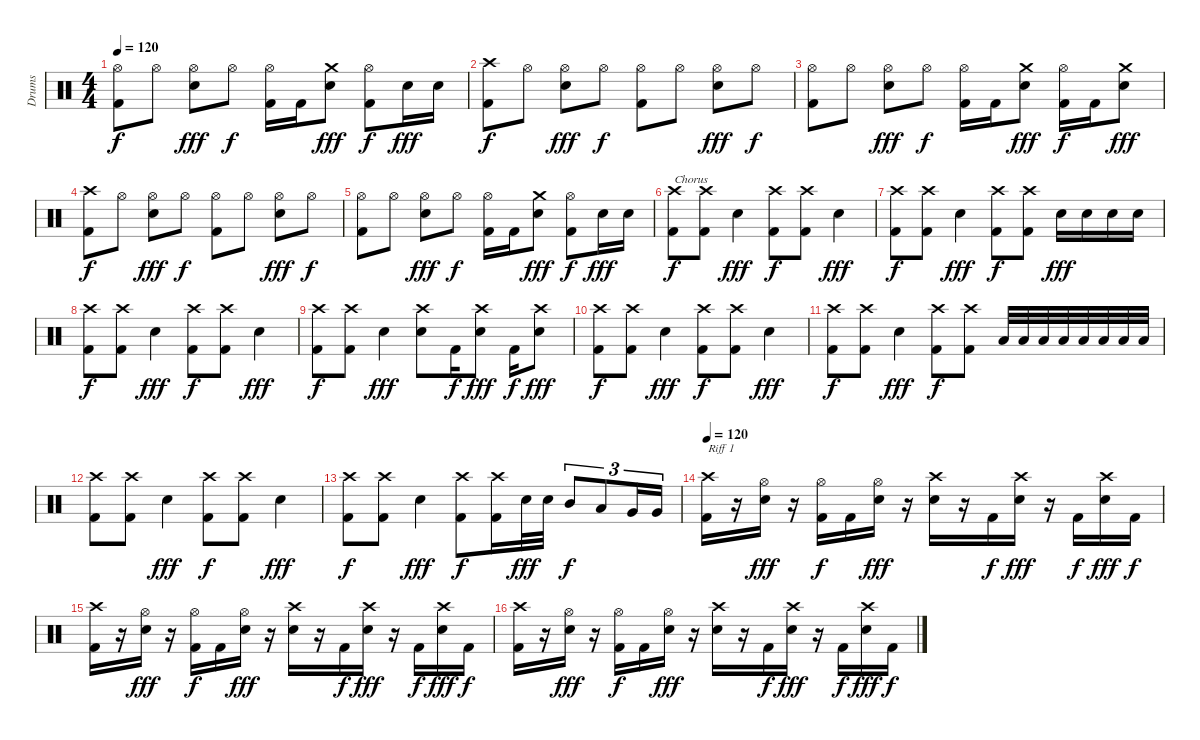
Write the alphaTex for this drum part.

\track ("Drums" "Drums") {instrument percussion}
\staff {score}
\articulation defaults
\ts (4 4)
\tempo 120
\clef neutral
\ks c
("Hi-Hat (open)" "Kick (hit) 2").8{dy f} "Hi-Hat (open)".8 ("Hi-Hat (open)" "Snare (hit) 2").8{dy fff} "Hi-Hat (open)".8{dy f} ("Hi-Hat (open)" "Kick (hit) 2").16 "Kick (hit) 2".16 ("Crash medium (hit)" "Snare (hit) 2").8{dy fff} ("Hi-Hat (open)" "Kick (hit) 2").8{dy f} "Snare (hit) 2".16{dy fff} "Snare (hit) 2".16 |
("Crash high (hit)" "Kick (hit) 2").8{dy f} "Hi-Hat (open)".8 ("Hi-Hat (open)" "Snare (hit) 2").8{dy fff} "Hi-Hat (open)".8{dy f} ("Hi-Hat (open)" "Kick (hit) 2").8 "Hi-Hat (open)".8 ("Hi-Hat (open)" "Snare (hit) 2").8{dy fff} "Hi-Hat (open)".8{dy f} |
("Hi-Hat (open)" "Kick (hit) 2").8 "Hi-Hat (open)".8 ("Hi-Hat (open)" "Snare (hit) 2").8{dy fff} "Hi-Hat (open)".8{dy f} ("Hi-Hat (open)" "Kick (hit) 2").16 "Kick (hit) 2".16 ("Crash medium (hit)" "Snare (hit) 2").8{dy fff} ("Hi-Hat (open)" "Kick (hit) 2").16{dy f} "Kick (hit) 2".16 ("Crash medium (hit)" "Snare (hit) 2").8{dy fff} |
("Crash high (hit)" "Kick (hit) 2").8{dy f} "Hi-Hat (open)".8 ("Hi-Hat (open)" "Snare (hit) 2").8{dy fff} "Hi-Hat (open)".8{dy f} ("Hi-Hat (open)" "Kick (hit) 2").8 "Hi-Hat (open)".8 ("Hi-Hat (open)" "Snare (hit) 2").8{dy fff} "Hi-Hat (open)".8{dy f} |
("Hi-Hat (open)" "Kick (hit) 2").8 "Hi-Hat (open)".8 ("Hi-Hat (open)" "Snare (hit) 2").8{dy fff} "Hi-Hat (open)".8{dy f} ("Hi-Hat (open)" "Kick (hit) 2").16 "Kick (hit) 2".16 ("Crash medium (hit)" "Snare (hit) 2").8{dy fff} ("Hi-Hat (open)" "Kick (hit) 2").8{dy f} "Snare (hit) 2".16{dy fff} "Snare (hit) 2".16 |
("Crash high (hit)" "Kick (hit) 2").8{txt "Chorus" dy f} ("Crash high (hit)" "Kick (hit) 2").8 "Snare (hit) 2".4{dy fff} ("Crash high (hit)" "Kick (hit) 2").8{dy f} ("Crash high (hit)" "Kick (hit) 2").8 "Snare (hit) 2".4{dy fff} |
("Crash high (hit)" "Kick (hit) 2").8{dy f} ("Crash high (hit)" "Kick (hit) 2").8 "Snare (hit) 2".4{dy fff} ("Crash high (hit)" "Kick (hit) 2").8{dy f} ("Crash high (hit)" "Kick (hit) 2").8 "Snare (hit) 2".16{dy fff} "Snare (hit) 2".16 "Snare (hit) 2".16 "Snare (hit) 2".16 |
("Crash high (hit)" "Kick (hit) 2").8{dy f} ("Crash high (hit)" "Kick (hit) 2").8 "Snare (hit) 2".4{dy fff} ("Crash high (hit)" "Kick (hit) 2").8{dy f} ("Crash high (hit)" "Kick (hit) 2").8 "Snare (hit) 2".4{dy fff} |
("Crash high (hit)" "Kick (hit) 2").8{dy f} ("Crash high (hit)" "Kick (hit) 2").8 "Snare (hit) 2".4{dy fff} ("Crash high (hit)" "Snare (hit) 2").8 "Kick (hit) 2".16{dy f} ("Crash high (hit)" "Snare (hit) 2").8{dy fff} "Kick (hit) 2".16{dy f} ("Crash high (hit)" "Snare (hit) 2").8{dy fff} |
("Crash high (hit)" "Kick (hit) 2").8{dy f} ("Crash high (hit)" "Kick (hit) 2").8 "Snare (hit) 2".4{dy fff} ("Crash high (hit)" "Kick (hit) 2").8{dy f} ("Crash high (hit)" "Kick (hit) 2").8 "Snare (hit) 2".4{dy fff} |
("Crash high (hit)" "Kick (hit) 2").8{dy f} ("Crash high (hit)" "Kick (hit) 2").8 "Snare (hit) 2".4{dy fff} ("Crash high (hit)" "Kick (hit) 2").8{dy f} ("Crash high (hit)" "Kick (hit) 2").8 "Low Tom (hit)".32 "Low Tom (hit)".32 "Low Tom (hit)".32 "Low Tom (hit)".32 "Low Floor Tom (hit)".32 "Low Floor Tom (hit)".32 "Low Floor Tom (hit)".32 "Low Floor Tom (hit)".32 |
("Crash high (hit)" "Kick (hit) 2").8 ("Crash high (hit)" "Kick (hit) 2").8 "Snare (hit) 2".4{dy fff} ("Crash high (hit)" "Kick (hit) 2").8{dy f} ("Crash high (hit)" "Kick (hit) 2").8 "Snare (hit) 2".4{dy fff} |
("Crash high (hit)" "Kick (hit) 2").8{dy f} ("Crash high (hit)" "Kick (hit) 2").8 "Snare (hit) 2".4{dy fff} ("Crash high (hit)" "Kick (hit) 2").8{dy f} ("Crash high (hit)" "Kick (hit) 2").16 "Snare (hit) 2".32{dy fff} "Snare (hit) 2".32 "Mid Tom (hit)".8{tu (3 2) dy f} "Low Tom (hit)".8{tu (3 2)} "Very Low Tom (hit)".16{tu (3 2)} "Very Low Tom (hit)".16{tu (3 2)} |
\tempo 120
("Crash high (hit)" "Kick (hit) 2").16{txt "Riff 1"} r.16 ("Hi-Hat (open)" "Snare (hit) 2").16{dy fff} r.16 ("Hi-Hat (open)" "Kick (hit) 2").16{dy f} "Kick (hit) 2".16 ("Hi-Hat (open)" "Snare (hit) 2").16{dy fff} r.16 ("Crash high (hit)" "Snare (hit) 2").16 r.16 "Kick (hit) 2".16{dy f} ("Crash high (hit)" "Snare (hit) 2").16{dy fff} r.16 "Kick (hit) 2".16{dy f} ("Crash high (hit)" "Snare (hit) 2").16{dy fff} "Kick (hit) 2".16{dy f} |
("Crash high (hit)" "Kick (hit) 2").16 r.16 ("Hi-Hat (open)" "Snare (hit) 2").16{dy fff} r.16 ("Hi-Hat (open)" "Kick (hit) 2").16{dy f} "Kick (hit) 2".16 ("Hi-Hat (open)" "Snare (hit) 2").16{dy fff} r.16 ("Crash high (hit)" "Snare (hit) 2").16 r.16 "Kick (hit) 2".16{dy f} ("Crash high (hit)" "Snare (hit) 2").16{dy fff} r.16 "Kick (hit) 2".16{dy f} ("Crash high (hit)" "Snare (hit) 2").16{dy fff} "Kick (hit) 2".16{dy f} |
("Crash high (hit)" "Kick (hit) 2").16 r.16 ("Hi-Hat (open)" "Snare (hit) 2").16{dy fff} r.16 ("Hi-Hat (open)" "Kick (hit) 2").16{dy f} "Kick (hit) 2".16 ("Hi-Hat (open)" "Snare (hit) 2").16{dy fff} r.16 ("Crash high (hit)" "Snare (hit) 2").16 r.16 "Kick (hit) 2".16{dy f} ("Crash high (hit)" "Snare (hit) 2").16{dy fff} r.16 "Kick (hit) 2".16{dy f} ("Crash high (hit)" "Snare (hit) 2").16{dy fff} "Kick (hit) 2".16{dy f}
